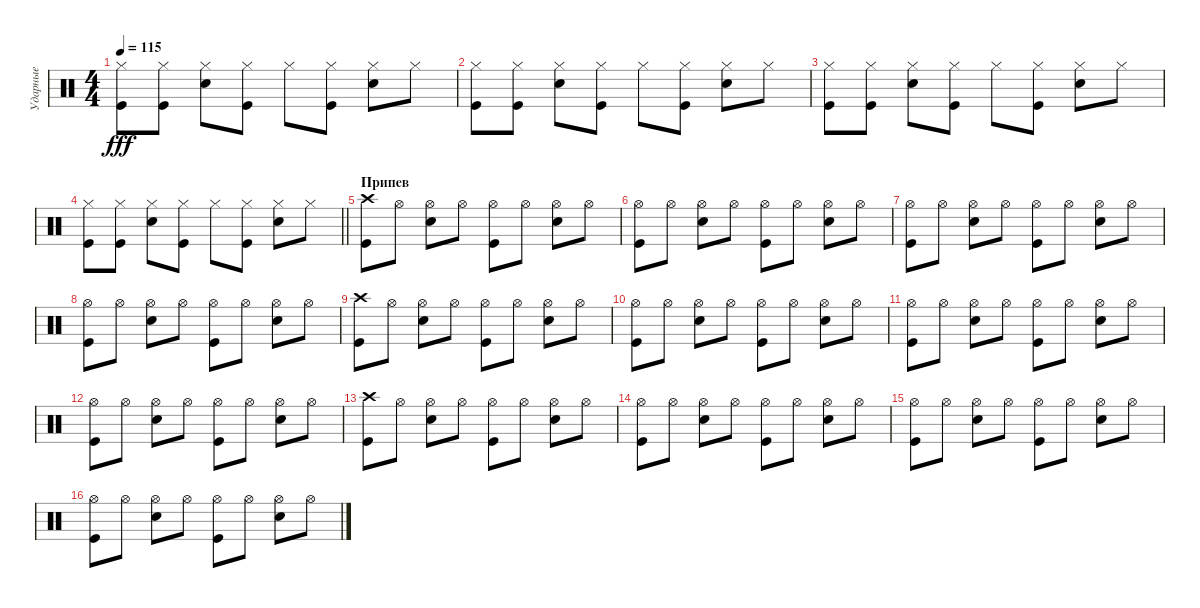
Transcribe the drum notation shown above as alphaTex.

\track ("Ударные" "Ударные") {instrument percussion}
\staff {score}
\articulation defaults
\ts (4 4)
\tempo 115
\clef neutral
\ks c
("Hi-Hat (closed)" "Kick (hit)").8{dy fff} ("Hi-Hat (closed)" "Kick (hit)").8 ("Hi-Hat (closed)" "Electric Snare (hit)").8 ("Hi-Hat (closed)" "Kick (hit)").8 "Hi-Hat (closed)".8 ("Hi-Hat (closed)" "Kick (hit)").8 ("Hi-Hat (closed)" "Electric Snare (hit)").8 "Hi-Hat (closed)".8 |
("Hi-Hat (closed)" "Kick (hit)").8 ("Hi-Hat (closed)" "Kick (hit)").8 ("Hi-Hat (closed)" "Electric Snare (hit)").8 ("Hi-Hat (closed)" "Kick (hit)").8 "Hi-Hat (closed)".8 ("Hi-Hat (closed)" "Kick (hit)").8 ("Hi-Hat (closed)" "Electric Snare (hit)").8 "Hi-Hat (closed)".8 |
("Hi-Hat (closed)" "Kick (hit)").8 ("Hi-Hat (closed)" "Kick (hit)").8 ("Hi-Hat (closed)" "Electric Snare (hit)").8 ("Hi-Hat (closed)" "Kick (hit)").8 "Hi-Hat (closed)".8 ("Hi-Hat (closed)" "Kick (hit)").8 ("Hi-Hat (closed)" "Electric Snare (hit)").8 "Hi-Hat (closed)".8 |
\barLineRight lightlight
("Hi-Hat (closed)" "Kick (hit)").8 ("Hi-Hat (closed)" "Kick (hit)").8 ("Hi-Hat (closed)" "Electric Snare (hit)").8 ("Hi-Hat (closed)" "Kick (hit)").8 "Hi-Hat (closed)".8 ("Hi-Hat (closed)" "Kick (hit)").8 ("Hi-Hat (closed)" "Electric Snare (hit)").8 "Hi-Hat (closed)".8 |
\section ("" "Припев")
("Crash high (hit)" "Kick (hit)").8 "Hi-Hat (open)".8 ("Hi-Hat (open)" "Electric Snare (hit)").8 "Hi-Hat (open)".8 ("Hi-Hat (open)" "Kick (hit)").8 "Hi-Hat (open)".8 ("Hi-Hat (open)" "Electric Snare (hit)").8 "Hi-Hat (open)".8 |
("Hi-Hat (open)" "Kick (hit)").8 "Hi-Hat (open)".8 ("Hi-Hat (open)" "Electric Snare (hit)").8 "Hi-Hat (open)".8 ("Hi-Hat (open)" "Kick (hit)").8 "Hi-Hat (open)".8 ("Hi-Hat (open)" "Electric Snare (hit)").8 "Hi-Hat (open)".8 |
("Hi-Hat (open)" "Kick (hit)").8 "Hi-Hat (open)".8 ("Hi-Hat (open)" "Electric Snare (hit)").8 "Hi-Hat (open)".8 ("Hi-Hat (open)" "Kick (hit)").8 "Hi-Hat (open)".8 ("Hi-Hat (open)" "Electric Snare (hit)").8 "Hi-Hat (open)".8 |
("Hi-Hat (open)" "Kick (hit)").8 "Hi-Hat (open)".8 ("Hi-Hat (open)" "Electric Snare (hit)").8 "Hi-Hat (open)".8 ("Hi-Hat (open)" "Kick (hit)").8 "Hi-Hat (open)".8 ("Hi-Hat (open)" "Electric Snare (hit)").8 "Hi-Hat (open)".8 |
("Crash high (hit)" "Kick (hit)").8 "Hi-Hat (open)".8 ("Hi-Hat (open)" "Electric Snare (hit)").8 "Hi-Hat (open)".8 ("Hi-Hat (open)" "Kick (hit)").8 "Hi-Hat (open)".8 ("Hi-Hat (open)" "Electric Snare (hit)").8 "Hi-Hat (open)".8 |
("Hi-Hat (open)" "Kick (hit)").8 "Hi-Hat (open)".8 ("Hi-Hat (open)" "Electric Snare (hit)").8 "Hi-Hat (open)".8 ("Hi-Hat (open)" "Kick (hit)").8 "Hi-Hat (open)".8 ("Hi-Hat (open)" "Electric Snare (hit)").8 "Hi-Hat (open)".8 |
("Hi-Hat (open)" "Kick (hit)").8 "Hi-Hat (open)".8 ("Hi-Hat (open)" "Electric Snare (hit)").8 "Hi-Hat (open)".8 ("Hi-Hat (open)" "Kick (hit)").8 "Hi-Hat (open)".8 ("Hi-Hat (open)" "Electric Snare (hit)").8 "Hi-Hat (open)".8 |
("Hi-Hat (open)" "Kick (hit)").8 "Hi-Hat (open)".8 ("Hi-Hat (open)" "Electric Snare (hit)").8 "Hi-Hat (open)".8 ("Hi-Hat (open)" "Kick (hit)").8 "Hi-Hat (open)".8 ("Hi-Hat (open)" "Electric Snare (hit)").8 "Hi-Hat (open)".8 |
("Crash high (hit)" "Kick (hit)").8 "Hi-Hat (open)".8 ("Hi-Hat (open)" "Electric Snare (hit)").8 "Hi-Hat (open)".8 ("Hi-Hat (open)" "Kick (hit)").8 "Hi-Hat (open)".8 ("Hi-Hat (open)" "Electric Snare (hit)").8 "Hi-Hat (open)".8 |
("Hi-Hat (open)" "Kick (hit)").8 "Hi-Hat (open)".8 ("Hi-Hat (open)" "Electric Snare (hit)").8 "Hi-Hat (open)".8 ("Hi-Hat (open)" "Kick (hit)").8 "Hi-Hat (open)".8 ("Hi-Hat (open)" "Electric Snare (hit)").8 "Hi-Hat (open)".8 |
("Hi-Hat (open)" "Kick (hit)").8 "Hi-Hat (open)".8 ("Hi-Hat (open)" "Electric Snare (hit)").8 "Hi-Hat (open)".8 ("Hi-Hat (open)" "Kick (hit)").8 "Hi-Hat (open)".8 ("Hi-Hat (open)" "Electric Snare (hit)").8 "Hi-Hat (open)".8 |
("Hi-Hat (open)" "Kick (hit)").8 "Hi-Hat (open)".8 ("Hi-Hat (open)" "Electric Snare (hit)").8 "Hi-Hat (open)".8 ("Hi-Hat (open)" "Kick (hit)").8 "Hi-Hat (open)".8 ("Hi-Hat (open)" "Electric Snare (hit)").8 "Hi-Hat (open)".8
